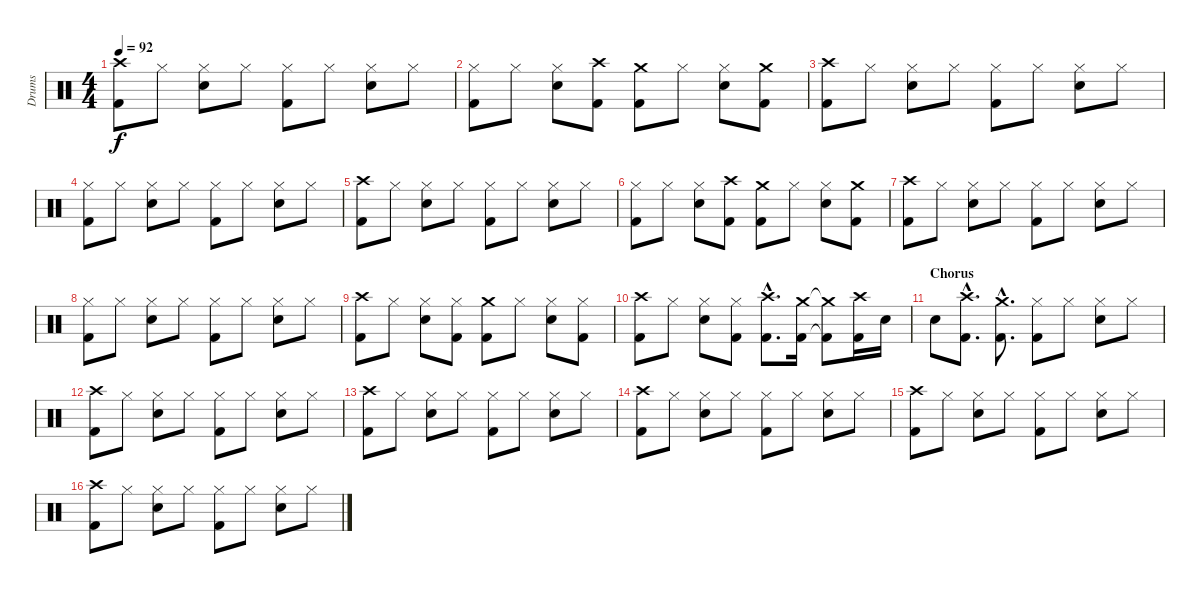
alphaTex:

\track ("Drums" "Drums") {instrument percussion}
\staff {score}
\articulation defaults
\ts (4 4)
\tempo 92
\clef neutral
\ks c
("Crash high (hit)" "Kick (hit) 2").8{dy f} "Hi-Hat (closed)".8 ("Hi-Hat (closed)" "Snare (hit) 2").8 "Hi-Hat (closed)".8 ("Hi-Hat (closed)" "Kick (hit) 2").8 "Hi-Hat (closed)".8 ("Hi-Hat (closed)" "Snare (hit) 2").8 "Hi-Hat (closed)".8 |
("Hi-Hat (closed)" "Kick (hit) 2").8 "Hi-Hat (closed)".8 ("Hi-Hat (closed)" "Snare (hit) 2").8 ("Crash high (hit)" "Kick (hit) 2").8 ("Crash medium (hit)" "Kick (hit) 2").8 "Hi-Hat (closed)".8 ("Hi-Hat (closed)" "Snare (hit) 2").8 ("Crash medium (hit)" "Kick (hit) 2").8 |
("Crash high (hit)" "Kick (hit) 2").8 "Hi-Hat (closed)".8 ("Hi-Hat (closed)" "Snare (hit) 2").8 "Hi-Hat (closed)".8 ("Hi-Hat (closed)" "Kick (hit) 2").8 "Hi-Hat (closed)".8 ("Hi-Hat (closed)" "Snare (hit) 2").8 "Hi-Hat (closed)".8 |
("Hi-Hat (closed)" "Kick (hit) 2").8 "Hi-Hat (closed)".8 ("Hi-Hat (closed)" "Snare (hit) 2").8 "Hi-Hat (closed)".8 ("Hi-Hat (closed)" "Kick (hit) 2").8 "Hi-Hat (closed)".8 ("Hi-Hat (closed)" "Snare (hit) 2").8 "Hi-Hat (closed)".8 |
("Crash high (hit)" "Kick (hit) 2").8 "Hi-Hat (closed)".8 ("Hi-Hat (closed)" "Snare (hit) 2").8 "Hi-Hat (closed)".8 ("Hi-Hat (closed)" "Kick (hit) 2").8 "Hi-Hat (closed)".8 ("Hi-Hat (closed)" "Snare (hit) 2").8 "Hi-Hat (closed)".8 |
("Hi-Hat (closed)" "Kick (hit) 2").8 "Hi-Hat (closed)".8 ("Hi-Hat (closed)" "Snare (hit) 2").8 ("Crash high (hit)" "Kick (hit) 2").8 ("Crash medium (hit)" "Kick (hit) 2").8 "Hi-Hat (closed)".8 ("Hi-Hat (closed)" "Snare (hit) 2").8 ("Crash medium (hit)" "Kick (hit) 2").8 |
("Crash high (hit)" "Kick (hit) 2").8 "Hi-Hat (closed)".8 ("Hi-Hat (closed)" "Snare (hit) 2").8 "Hi-Hat (closed)".8 ("Hi-Hat (closed)" "Kick (hit) 2").8 "Hi-Hat (closed)".8 ("Hi-Hat (closed)" "Snare (hit) 2").8 "Hi-Hat (closed)".8 |
("Hi-Hat (closed)" "Kick (hit) 2").8 "Hi-Hat (closed)".8 ("Hi-Hat (closed)" "Snare (hit) 2").8 "Hi-Hat (closed)".8 ("Hi-Hat (closed)" "Kick (hit) 2").8 "Hi-Hat (closed)".8 ("Hi-Hat (closed)" "Snare (hit) 2").8 "Hi-Hat (closed)".8 |
("Crash high (hit)" "Kick (hit) 2").8 "Hi-Hat (closed)".8 ("Hi-Hat (closed)" "Snare (hit) 2").8 ("Hi-Hat (closed)" "Kick (hit) 2").8 ("Crash medium (hit)" "Kick (hit) 2").8 "Hi-Hat (closed)".8 ("Hi-Hat (closed)" "Snare (hit) 2").8 ("Hi-Hat (closed)" "Kick (hit) 2").8 |
("Crash high (hit)" "Kick (hit) 2").8 "Hi-Hat (closed)".8 ("Hi-Hat (closed)" "Snare (hit) 2").8 ("Hi-Hat (closed)" "Kick (hit) 2").8 ("Crash high (hit)"{hac} "Kick (hit) 2"{hac}).8{d} ("Crash medium (hit)" "Kick (hit) 2").16 ("Crash medium (hit)"{t} "Kick (hit) 2"{t}).8 ("Crash high (hit)" "Kick (hit) 2").16 "Snare (hit) 2".16 |
\section ("" "Chorus")
"Snare (hit) 2".8 ("Crash high (hit)"{hac} "Kick (hit) 2"{hac}).8{d} ("Crash medium (hit)"{hac} "Kick (hit) 2"{hac}).8{d} ("Hi-Hat (closed)" "Kick (hit) 2").8 "Hi-Hat (closed)".8 ("Hi-Hat (closed)" "Snare (hit) 2").8 "Hi-Hat (closed)".8 |
("Crash high (hit)" "Kick (hit) 2").8 "Hi-Hat (closed)".8 ("Hi-Hat (closed)" "Snare (hit) 2").8 "Hi-Hat (closed)".8 ("Hi-Hat (closed)" "Kick (hit) 2").8 "Hi-Hat (closed)".8 ("Hi-Hat (closed)" "Snare (hit) 2").8 "Hi-Hat (closed)".8 |
("Crash high (hit)" "Kick (hit) 2").8 "Hi-Hat (closed)".8 ("Hi-Hat (closed)" "Snare (hit) 2").8 "Hi-Hat (closed)".8 ("Hi-Hat (closed)" "Kick (hit) 2").8 "Hi-Hat (closed)".8 ("Hi-Hat (closed)" "Snare (hit) 2").8 "Hi-Hat (closed)".8 |
("Crash high (hit)" "Kick (hit) 2").8 "Hi-Hat (closed)".8 ("Hi-Hat (closed)" "Snare (hit) 2").8 "Hi-Hat (closed)".8 ("Hi-Hat (closed)" "Kick (hit) 2").8 "Hi-Hat (closed)".8 ("Hi-Hat (closed)" "Snare (hit) 2").8 "Hi-Hat (closed)".8 |
("Crash high (hit)" "Kick (hit) 2").8 "Hi-Hat (closed)".8 ("Hi-Hat (closed)" "Snare (hit) 2").8 "Hi-Hat (closed)".8 ("Hi-Hat (closed)" "Kick (hit) 2").8 "Hi-Hat (closed)".8 ("Hi-Hat (closed)" "Snare (hit) 2").8 "Hi-Hat (closed)".8 |
("Crash high (hit)" "Kick (hit) 2").8 "Hi-Hat (closed)".8 ("Hi-Hat (closed)" "Snare (hit) 2").8 "Hi-Hat (closed)".8 ("Hi-Hat (closed)" "Kick (hit) 2").8 "Hi-Hat (closed)".8 ("Hi-Hat (closed)" "Snare (hit) 2").8 "Hi-Hat (closed)".8
